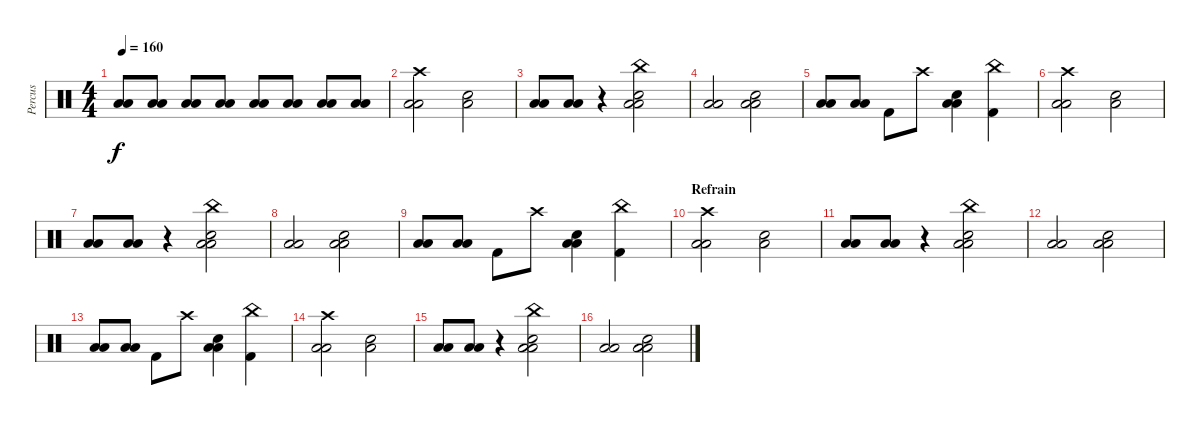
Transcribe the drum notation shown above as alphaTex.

\track ("Percus" "Percus") {instrument percussion}
\staff {score}
\articulation defaults
\ts (4 4)
\tempo 160
\clef neutral
\ks c
("Low Tom (hit)" "Low Floor Tom (hit)").8{dy f} ("Low Tom (hit)" "Low Floor Tom (hit)").8 ("Low Tom (hit)" "Low Floor Tom (hit)").8 ("Low Tom (hit)" "Low Floor Tom (hit)").8 ("Low Tom (hit)" "Low Floor Tom (hit)").8 ("Low Tom (hit)" "Low Floor Tom (hit)").8 ("Low Tom (hit)" "Low Floor Tom (hit)").8 ("Low Tom (hit)" "Low Floor Tom (hit)").8 |
("Crash high (hit)" "Low Tom (hit)" "Low Floor Tom (hit)").2 ("Snare (hit) 2" "Low Floor Tom (hit)").2 |
("Low Tom (hit)" "Low Floor Tom (hit)").8 ("Low Tom (hit)" "Low Floor Tom (hit)").8 r.4 ("Snare (hit) 2" "Low Floor Tom (hit)" "Low Tom (hit)" "China (hit)").2 |
("Low Floor Tom (hit)" "Low Tom (hit)").2 ("Snare (hit) 2" "Low Floor Tom (hit)" "Low Tom (hit)").2 |
("Low Floor Tom (hit)" "Low Tom (hit)").8 ("Low Floor Tom (hit)" "Low Tom (hit)").8 "Kick (hit) 2".8 "Crash high (hit)".8 ("Snare (hit) 2" "Low Floor Tom (hit)" "Low Tom (hit)").4 ("China (hit)" "Kick (hit) 2").4 |
("Crash high (hit)" "Low Tom (hit)" "Low Floor Tom (hit)").2 ("Snare (hit) 2" "Low Floor Tom (hit)").2 |
("Low Tom (hit)" "Low Floor Tom (hit)").8 ("Low Tom (hit)" "Low Floor Tom (hit)").8 r.4 ("Snare (hit) 2" "Low Floor Tom (hit)" "Low Tom (hit)" "China (hit)").2 |
("Low Floor Tom (hit)" "Low Tom (hit)").2 ("Snare (hit) 2" "Low Floor Tom (hit)" "Low Tom (hit)").2 |
("Low Floor Tom (hit)" "Low Tom (hit)").8 ("Low Floor Tom (hit)" "Low Tom (hit)").8 "Kick (hit) 2".8 "Crash high (hit)".8 ("Snare (hit) 2" "Low Floor Tom (hit)" "Low Tom (hit)").4 ("China (hit)" "Kick (hit) 2").4 |
\section ("" "Refrain")
("Crash high (hit)" "Low Tom (hit)" "Low Floor Tom (hit)").2 ("Snare (hit) 2" "Low Floor Tom (hit)").2 |
("Low Tom (hit)" "Low Floor Tom (hit)").8 ("Low Tom (hit)" "Low Floor Tom (hit)").8 r.4 ("Snare (hit) 2" "Low Floor Tom (hit)" "Low Tom (hit)" "China (hit)").2 |
("Low Floor Tom (hit)" "Low Tom (hit)").2 ("Snare (hit) 2" "Low Floor Tom (hit)" "Low Tom (hit)").2 |
("Low Floor Tom (hit)" "Low Tom (hit)").8 ("Low Floor Tom (hit)" "Low Tom (hit)").8 "Kick (hit) 2".8 "Crash high (hit)".8 ("Snare (hit) 2" "Low Floor Tom (hit)" "Low Tom (hit)").4 ("China (hit)" "Kick (hit) 2").4 |
("Crash high (hit)" "Low Tom (hit)" "Low Floor Tom (hit)").2 ("Snare (hit) 2" "Low Floor Tom (hit)").2 |
("Low Tom (hit)" "Low Floor Tom (hit)").8 ("Low Tom (hit)" "Low Floor Tom (hit)").8 r.4 ("Snare (hit) 2" "Low Floor Tom (hit)" "Low Tom (hit)" "China (hit)").2 |
("Low Floor Tom (hit)" "Low Tom (hit)").2 ("Snare (hit) 2" "Low Floor Tom (hit)" "Low Tom (hit)").2
